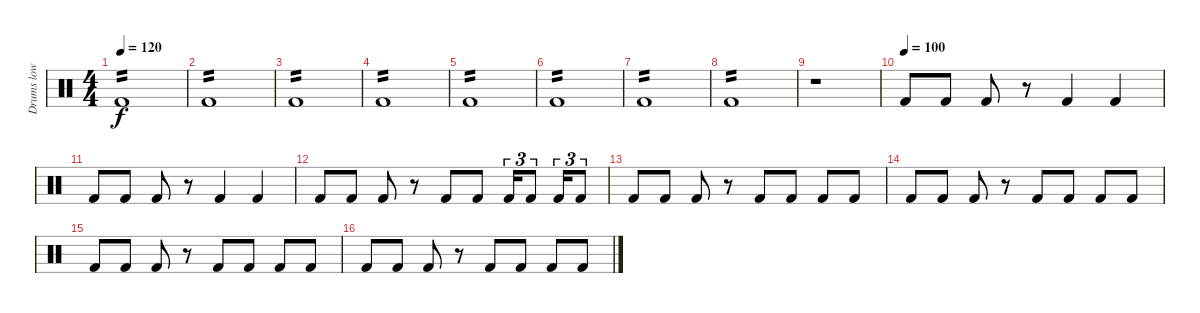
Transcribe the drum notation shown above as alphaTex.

\track ("Drums low" "Drums low") {instrument percussion}
\staff {score}
\articulation defaults
\ts (4 4)
\tempo 120
\clef neutral
\ks c "Kick (hit) 2".1{tp 2 dy f}
|
"Kick (hit) 2".1{tp 2} |
"Kick (hit) 2".1{tp 2} |
"Kick (hit) 2".1{tp 2} |
"Kick (hit) 2".1{tp 2} |
"Kick (hit) 2".1{tp 2} |
"Kick (hit) 2".1{tp 2} |
"Kick (hit) 2".1{tp 2} |
r.1 |
\tempo (100)
"Kick (hit) 2".8 "Kick (hit) 2".8 "Kick (hit) 2".8 r.8 "Kick (hit) 2".4 "Kick (hit) 2".4 |
"Kick (hit) 2".8 "Kick (hit) 2".8 "Kick (hit) 2".8 r.8 "Kick (hit) 2".4 "Kick (hit) 2".4 |
"Kick (hit) 2".8 "Kick (hit) 2".8 "Kick (hit) 2".8 r.8 "Kick (hit) 2".8 "Kick (hit) 2".8 "Kick (hit) 2".16{tu (3 2)} "Kick (hit) 2".8{tu (3 2)} "Kick (hit) 2".16{tu (3 2)} "Kick (hit) 2".8{tu (3 2)} |
"Kick (hit) 2".8 "Kick (hit) 2".8 "Kick (hit) 2".8 r.8 "Kick (hit) 2".8 "Kick (hit) 2".8 "Kick (hit) 2".8 "Kick (hit) 2".8 |
"Kick (hit) 2".8 "Kick (hit) 2".8 "Kick (hit) 2".8 r.8 "Kick (hit) 2".8 "Kick (hit) 2".8 "Kick (hit) 2".8 "Kick (hit) 2".8 |
"Kick (hit) 2".8 "Kick (hit) 2".8 "Kick (hit) 2".8 r.8 "Kick (hit) 2".8 "Kick (hit) 2".8 "Kick (hit) 2".8 "Kick (hit) 2".8 |
"Kick (hit) 2".8 "Kick (hit) 2".8 "Kick (hit) 2".8 r.8 "Kick (hit) 2".8 "Kick (hit) 2".8 "Kick (hit) 2".8 "Kick (hit) 2".8
